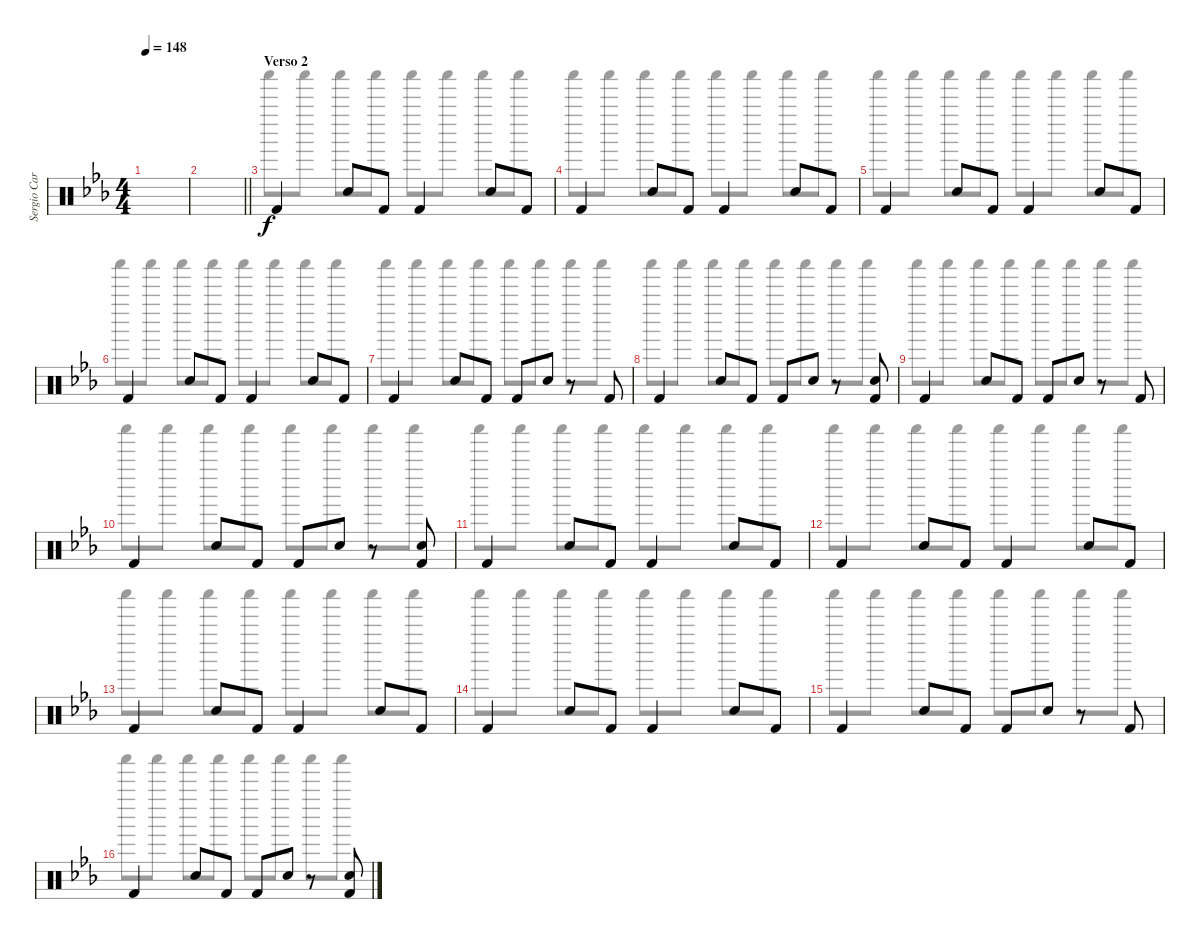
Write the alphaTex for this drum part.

\track ("Sergio Carnevale [Batteria]" "Sergio Car") {instrument percussion}
\staff {score}
\articulation defaults
\voice
\ts (4 4)
\tempo 148
\clef neutral
\ks cminor
|
\barLineRight lightlight
|
\section ("" "Verso 2")
"Kick (hit) 2".4 "Snare (hit) 2".8 "Kick (hit) 2".8 "Kick (hit) 2".4 "Snare (hit) 2".8 "Kick (hit) 2".8 |
"Kick (hit) 2".4 "Snare (hit) 2".8 "Kick (hit) 2".8 "Kick (hit) 2".4 "Snare (hit) 2".8 "Kick (hit) 2".8 |
"Kick (hit) 2".4 "Snare (hit) 2".8 "Kick (hit) 2".8 "Kick (hit) 2".4 "Snare (hit) 2".8 "Kick (hit) 2".8 |
"Kick (hit) 2".4 "Snare (hit) 2".8 "Kick (hit) 2".8 "Kick (hit) 2".4 "Snare (hit) 2".8 "Kick (hit) 2".8 |
"Kick (hit) 2".4 "Snare (hit) 2".8 "Kick (hit) 2".8 "Kick (hit) 2".8 "Snare (hit) 2".8 r.8 "Kick (hit) 2".8 |
"Kick (hit) 2".4 "Snare (hit) 2".8 "Kick (hit) 2".8 "Kick (hit) 2".8 "Snare (hit) 2".8 r.8 ("Snare (hit) 2" "Kick (hit) 2").8 |
"Kick (hit) 2".4 "Snare (hit) 2".8 "Kick (hit) 2".8 "Kick (hit) 2".8 "Snare (hit) 2".8 r.8 "Kick (hit) 2".8 |
"Kick (hit) 2".4 "Snare (hit) 2".8 "Kick (hit) 2".8 "Kick (hit) 2".8 "Snare (hit) 2".8 r.8 ("Snare (hit) 2" "Kick (hit) 2").8 |
"Kick (hit) 2".4 "Snare (hit) 2".8 "Kick (hit) 2".8 "Kick (hit) 2".4 "Snare (hit) 2".8 "Kick (hit) 2".8 |
"Kick (hit) 2".4 "Snare (hit) 2".8 "Kick (hit) 2".8 "Kick (hit) 2".4 "Snare (hit) 2".8 "Kick (hit) 2".8 |
"Kick (hit) 2".4 "Snare (hit) 2".8 "Kick (hit) 2".8 "Kick (hit) 2".4 "Snare (hit) 2".8 "Kick (hit) 2".8 |
"Kick (hit) 2".4 "Snare (hit) 2".8 "Kick (hit) 2".8 "Kick (hit) 2".4 "Snare (hit) 2".8 "Kick (hit) 2".8 |
"Kick (hit) 2".4 "Snare (hit) 2".8 "Kick (hit) 2".8 "Kick (hit) 2".8 "Snare (hit) 2".8 r.8 "Kick (hit) 2".8 |
"Kick (hit) 2".4 "Snare (hit) 2".8 "Kick (hit) 2".8 "Kick (hit) 2".8 "Snare (hit) 2".8 r.8 ("Snare (hit) 2" "Kick (hit) 2").8
\voice
\clef neutral
\ottava regular
\simile none
\ks cminor
|
\barLineRight lightlight
|
"Shaker (hit)".8 "Shaker (hit)".8 "Shaker (hit)".8 "Shaker (hit)".8 "Shaker (hit)".8 "Shaker (hit)".8 "Shaker (hit)".8 "Shaker (hit)".8 |
"Shaker (hit)".8 "Shaker (hit)".8 "Shaker (hit)".8 "Shaker (hit)".8 "Shaker (hit)".8 "Shaker (hit)".8 "Shaker (hit)".8 "Shaker (hit)".8 |
"Shaker (hit)".8 "Shaker (hit)".8 "Shaker (hit)".8 "Shaker (hit)".8 "Shaker (hit)".8 "Shaker (hit)".8 "Shaker (hit)".8 "Shaker (hit)".8 |
"Shaker (hit)".8 "Shaker (hit)".8 "Shaker (hit)".8 "Shaker (hit)".8 "Shaker (hit)".8 "Shaker (hit)".8 "Shaker (hit)".8 "Shaker (hit)".8 |
"Shaker (hit)".8 "Shaker (hit)".8 "Shaker (hit)".8 "Shaker (hit)".8 "Shaker (hit)".8 "Shaker (hit)".8 "Shaker (hit)".8 "Shaker (hit)".8 |
"Shaker (hit)".8 "Shaker (hit)".8 "Shaker (hit)".8 "Shaker (hit)".8 "Shaker (hit)".8 "Shaker (hit)".8 "Shaker (hit)".8 "Shaker (hit)".8 |
"Shaker (hit)".8 "Shaker (hit)".8 "Shaker (hit)".8 "Shaker (hit)".8 "Shaker (hit)".8 "Shaker (hit)".8 "Shaker (hit)".8 "Shaker (hit)".8 |
"Shaker (hit)".8 "Shaker (hit)".8 "Shaker (hit)".8 "Shaker (hit)".8 "Shaker (hit)".8 "Shaker (hit)".8 "Shaker (hit)".8 "Shaker (hit)".8 |
"Shaker (hit)".8 "Shaker (hit)".8 "Shaker (hit)".8 "Shaker (hit)".8 "Shaker (hit)".8 "Shaker (hit)".8 "Shaker (hit)".8 "Shaker (hit)".8 |
"Shaker (hit)".8 "Shaker (hit)".8 "Shaker (hit)".8 "Shaker (hit)".8 "Shaker (hit)".8 "Shaker (hit)".8 "Shaker (hit)".8 "Shaker (hit)".8 |
"Shaker (hit)".8 "Shaker (hit)".8 "Shaker (hit)".8 "Shaker (hit)".8 "Shaker (hit)".8 "Shaker (hit)".8 "Shaker (hit)".8 "Shaker (hit)".8 |
"Shaker (hit)".8 "Shaker (hit)".8 "Shaker (hit)".8 "Shaker (hit)".8 "Shaker (hit)".8 "Shaker (hit)".8 "Shaker (hit)".8 "Shaker (hit)".8 |
"Shaker (hit)".8 "Shaker (hit)".8 "Shaker (hit)".8 "Shaker (hit)".8 "Shaker (hit)".8 "Shaker (hit)".8 "Shaker (hit)".8 "Shaker (hit)".8 |
"Shaker (hit)".8 "Shaker (hit)".8 "Shaker (hit)".8 "Shaker (hit)".8 "Shaker (hit)".8 "Shaker (hit)".8 "Shaker (hit)".8 "Shaker (hit)".8
